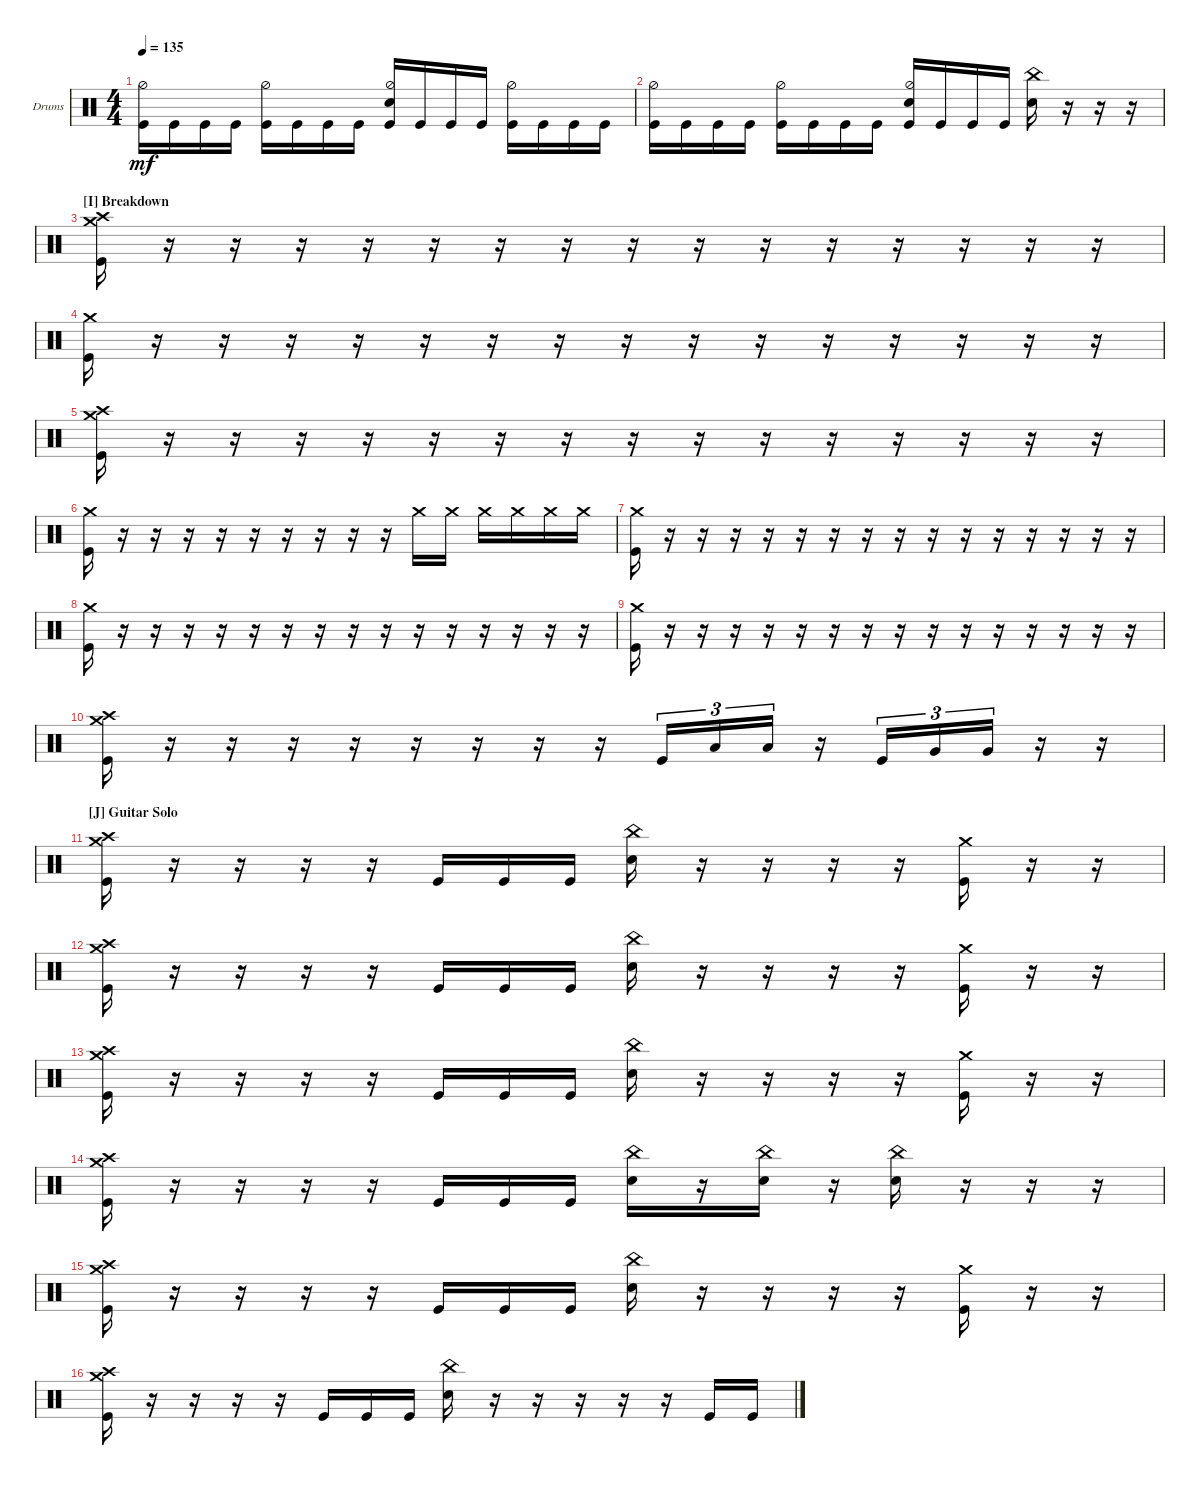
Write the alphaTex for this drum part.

\bracketExtendMode groupsimilarinstruments
\firstSystemTrackNameOrientation horizontal
\otherSystemsTrackNameOrientation horizontal
\track ("Drumkit" "Drums") {instrument percussion}
\staff {score}
\articulation defaults
\ts (4 4)
\tempo 135
\clef neutral
\ks c
("Kick (hit)" "Hi-Hat (half)").16{dy mf} "Kick (hit)".16 "Kick (hit)".16 "Kick (hit)".16 ("Kick (hit)" "Hi-Hat (half)").16 "Kick (hit)".16 "Kick (hit)".16 "Kick (hit)".16 ("Kick (hit)" "Snare (hit) 2" "Hi-Hat (half)").16 "Kick (hit)".16 "Kick (hit)".16 "Kick (hit)".16 ("Kick (hit)" "Hi-Hat (half)").16 "Kick (hit)".16 "Kick (hit)".16 "Kick (hit)".16 |
("Kick (hit)" "Hi-Hat (half)").16 "Kick (hit)".16 "Kick (hit)".16 "Kick (hit)".16 ("Kick (hit)" "Hi-Hat (half)").16 "Kick (hit)".16 "Kick (hit)".16 "Kick (hit)".16 ("Kick (hit)" "Snare (hit) 2" "Hi-Hat (half)").16 "Kick (hit)".16 "Kick (hit)".16 "Kick (hit)".16 ("Snare (hit) 2" "China (hit)").16 r.16 r.16 r.16 |
\section ("I" "Breakdown")
("Kick (hit)" "Crash medium (hit)" "Crash high (hit)").16 r.16 r.16 r.16 r.16 r.16 r.16 r.16 r.16 r.16 r.16 r.16 r.16 r.16 r.16 r.16 |
("Kick (hit)" "Crash medium (hit)").16 r.16 r.16 r.16 r.16 r.16 r.16 r.16 r.16 r.16 r.16 r.16 r.16 r.16 r.16 r.16 |
("Kick (hit)" "Crash medium (hit)" "Crash high (hit)").16 r.16 r.16 r.16 r.16 r.16 r.16 r.16 r.16 r.16 r.16 r.16 r.16 r.16 r.16 r.16 |
("Kick (hit)" "Crash medium (hit)").16 r.16 r.16 r.16 r.16 r.16 r.16 r.16 r.16 r.16 "Crash medium (hit)".16 "Crash medium (hit)".16 "Crash medium (hit)".16 "Crash medium (hit)".16 "Crash medium (hit)".16 "Crash medium (hit)".16 |
("Kick (hit)" "Crash medium (hit)").16 r.16 r.16 r.16 r.16 r.16 r.16 r.16 r.16 r.16 r.16 r.16 r.16 r.16 r.16 r.16 |
("Kick (hit)" "Crash medium (hit)").16 r.16 r.16 r.16 r.16 r.16 r.16 r.16 r.16 r.16 r.16 r.16 r.16 r.16 r.16 r.16 |
("Kick (hit)" "Crash medium (hit)").16 r.16 r.16 r.16 r.16 r.16 r.16 r.16 r.16 r.16 r.16 r.16 r.16 r.16 r.16 r.16 |
("Kick (hit)" "Crash medium (hit)" "Crash high (hit)").16 r.16 r.16 r.16 r.16 r.16 r.16 r.16 r.16 "Kick (hit)".16{tu (3 2)} "Low Tom (hit)".16{tu (3 2)} "Low Tom (hit)".16{tu (3 2)} r.16 "Kick (hit)".16{tu (3 2)} "Very Low Tom (hit)".16{tu (3 2)} "Very Low Tom (hit)".16{tu (3 2)} r.16 r.16 |
\section ("J" "Guitar Solo")
("Kick (hit)" "Crash medium (hit)" "Crash high (hit)").16 r.16 r.16 r.16 r.16 "Kick (hit)".16 "Kick (hit)".16 "Kick (hit)".16 ("Snare (hit) 2" "China (hit)").16 r.16 r.16 r.16 r.16 ("Crash medium (hit)" "Kick (hit)").16 r.16 r.16 |
("Kick (hit)" "Crash medium (hit)" "Crash high (hit)").16 r.16 r.16 r.16 r.16 "Kick (hit)".16 "Kick (hit)".16 "Kick (hit)".16 ("Snare (hit) 2" "China (hit)").16 r.16 r.16 r.16 r.16 ("Crash medium (hit)" "Kick (hit)").16 r.16 r.16 |
("Kick (hit)" "Crash medium (hit)" "Crash high (hit)").16 r.16 r.16 r.16 r.16 "Kick (hit)".16 "Kick (hit)".16 "Kick (hit)".16 ("Snare (hit) 2" "China (hit)").16 r.16 r.16 r.16 r.16 ("Crash medium (hit)" "Kick (hit)").16 r.16 r.16 |
("Kick (hit)" "Crash medium (hit)" "Crash high (hit)").16 r.16 r.16 r.16 r.16 "Kick (hit)".16 "Kick (hit)".16 "Kick (hit)".16 ("Snare (hit) 2" "China (hit)").16 r.16 ("Snare (hit) 2" "China (hit)").16 r.16 ("Snare (hit) 2" "China (hit)").16 r.16 r.16 r.16 |
("Kick (hit)" "Crash medium (hit)" "Crash high (hit)").16 r.16 r.16 r.16 r.16 "Kick (hit)".16 "Kick (hit)".16 "Kick (hit)".16 ("Snare (hit) 2" "China (hit)").16 r.16 r.16 r.16 r.16 ("Crash medium (hit)" "Kick (hit)").16 r.16 r.16 |
("Kick (hit)" "Crash medium (hit)" "Crash high (hit)").16 r.16 r.16 r.16 r.16 "Kick (hit)".16 "Kick (hit)".16 "Kick (hit)".16 ("Snare (hit) 2" "China (hit)").16 r.16 r.16 r.16 r.16 r.16 "Kick (hit)".16 "Kick (hit)".16
